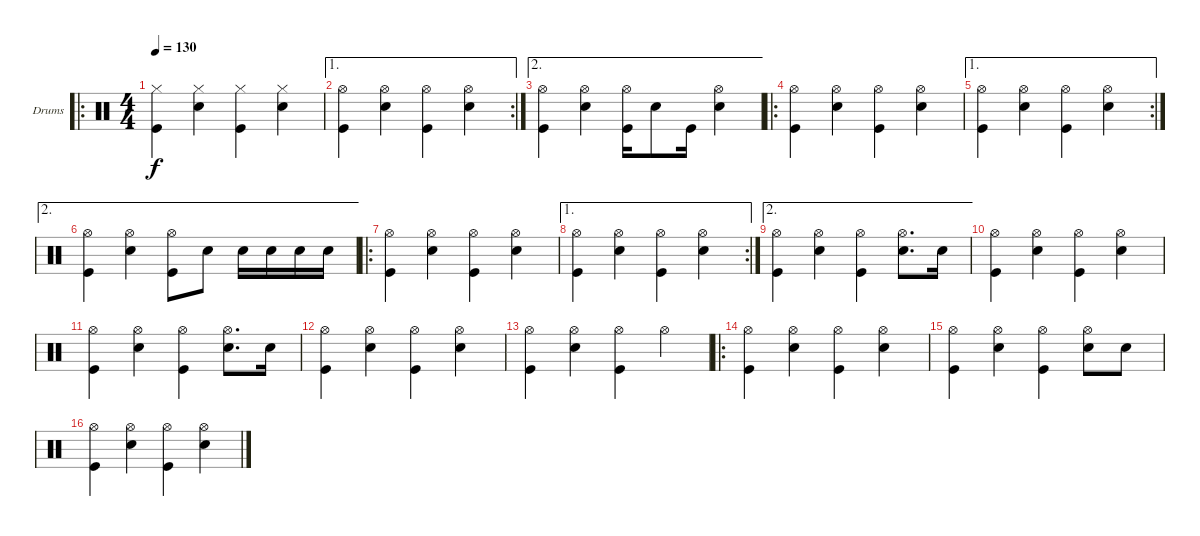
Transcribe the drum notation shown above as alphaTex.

\bracketExtendMode groupsimilarinstruments
\firstSystemTrackNameOrientation horizontal
\otherSystemsTrackNameOrientation horizontal
\track ("Drumkit" "Drums") {instrument percussion}
\staff {score}
\articulation defaults
\ro
\ts (4 4)
\tempo 130
\clef neutral
\ks c
("Hi-Hat (closed)" "Kick (hit)").4{dy f} ("Hi-Hat (closed)" "Snare (hit) 2").4 ("Hi-Hat (closed)" "Kick (hit)").4 ("Hi-Hat (closed)" "Snare (hit) 2").4 |
\ae 1
\rc 2
("Hi-Hat (open)" "Kick (hit)").4 ("Hi-Hat (open)" "Snare (hit) 2").4 ("Hi-Hat (open)" "Kick (hit)").4 ("Hi-Hat (open)" "Snare (hit) 2").4 |
\ae 2
("Hi-Hat (open)" "Kick (hit)").4 ("Hi-Hat (open)" "Snare (hit) 2").4 ("Hi-Hat (open)" "Kick (hit)").16 "Snare (hit) 2".8 "Kick (hit)".16 ("Hi-Hat (open)" "Snare (hit) 2").4 |
\ro
("Hi-Hat (open)" "Kick (hit)").4 ("Hi-Hat (open)" "Snare (hit) 2").4 ("Hi-Hat (open)" "Kick (hit)").4 ("Hi-Hat (open)" "Snare (hit) 2").4 |
\ae 1
\rc 2
("Hi-Hat (open)" "Kick (hit)").4 ("Hi-Hat (open)" "Snare (hit) 2").4 ("Hi-Hat (open)" "Kick (hit)").4 ("Hi-Hat (open)" "Snare (hit) 2").4 |
\ae 2
("Hi-Hat (open)" "Kick (hit)").4 ("Hi-Hat (open)" "Snare (hit) 2").4 ("Hi-Hat (open)" "Kick (hit)").8 "Snare (hit) 2".8 "Snare (hit) 2".16 "Snare (hit) 2".16 "Snare (hit) 2".16 "Snare (hit) 2".16 |
\ro
("Hi-Hat (open)" "Kick (hit)").4 ("Hi-Hat (open)" "Snare (hit) 2").4 ("Hi-Hat (open)" "Kick (hit)").4 ("Hi-Hat (open)" "Snare (hit) 2").4 |
\ae 1
\rc 2
("Hi-Hat (open)" "Kick (hit)").4 ("Hi-Hat (open)" "Snare (hit) 2").4 ("Hi-Hat (open)" "Kick (hit)").4 ("Hi-Hat (open)" "Snare (hit) 2").4 |
\ae 2
("Hi-Hat (open)" "Kick (hit)").4 ("Hi-Hat (open)" "Snare (hit) 2").4 ("Hi-Hat (open)" "Kick (hit)").4 ("Hi-Hat (open)" "Snare (hit) 2").8{d} "Snare (hit) 2".16 |
("Hi-Hat (open)" "Kick (hit)").4 ("Hi-Hat (open)" "Snare (hit) 2").4 ("Hi-Hat (open)" "Kick (hit)").4 ("Hi-Hat (open)" "Snare (hit) 2").4 |
("Hi-Hat (open)" "Kick (hit)").4 ("Hi-Hat (open)" "Snare (hit) 2").4 ("Hi-Hat (open)" "Kick (hit)").4 ("Hi-Hat (open)" "Snare (hit) 2").8{d} "Snare (hit) 2".16 |
("Hi-Hat (open)" "Kick (hit)").4 ("Hi-Hat (open)" "Snare (hit) 2").4 ("Hi-Hat (open)" "Kick (hit)").4 ("Hi-Hat (open)" "Snare (hit) 2").4 |
("Hi-Hat (open)" "Kick (hit)").4 ("Hi-Hat (open)" "Snare (hit) 2").4 ("Hi-Hat (open)" "Kick (hit)").4 "Hi-Hat (open)".4 |
\ro
("Hi-Hat (open)" "Kick (hit)").4 ("Hi-Hat (open)" "Snare (hit) 2").4 ("Hi-Hat (open)" "Kick (hit)").4 ("Hi-Hat (open)" "Snare (hit) 2").4 |
("Hi-Hat (open)" "Kick (hit)").4 ("Hi-Hat (open)" "Snare (hit) 2").4 ("Hi-Hat (open)" "Kick (hit)").4 ("Hi-Hat (open)" "Snare (hit) 2").8 "Snare (hit) 2".8 |
("Hi-Hat (open)" "Kick (hit)").4 ("Hi-Hat (open)" "Snare (hit) 2").4 ("Hi-Hat (open)" "Kick (hit)").4 ("Hi-Hat (open)" "Snare (hit) 2").4
